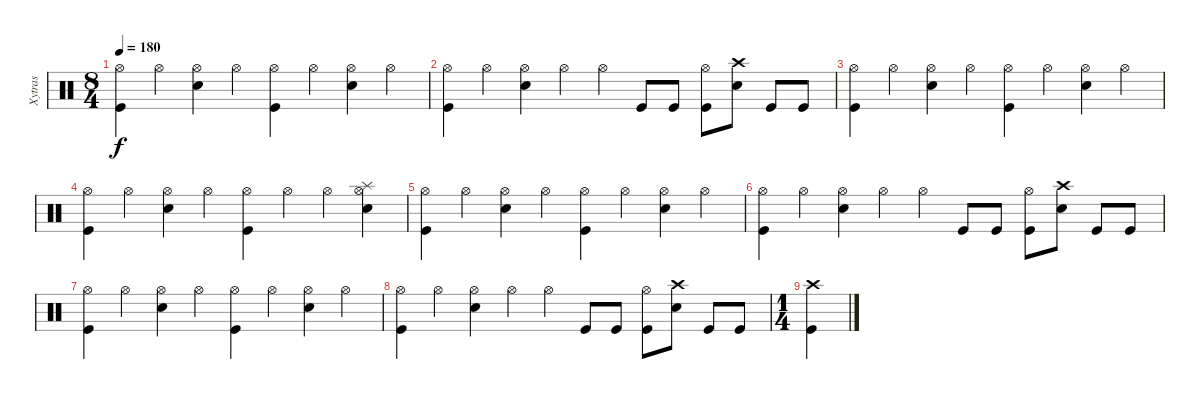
\track ("Xytras" "Xytras") {instrument percussion}
\staff {score}
\articulation defaults
\ts (8 4)
\tempo 180
\clef neutral
\ks c
("Hi-Hat (open)" "Kick (hit)").4{dy f} "Hi-Hat (open)".4 ("Hi-Hat (open)" "Electric Snare (hit)").4 "Hi-Hat (open)".4 ("Hi-Hat (open)" "Kick (hit)").4 "Hi-Hat (open)".4 ("Hi-Hat (open)" "Electric Snare (hit)").4 "Hi-Hat (open)".4 |
("Hi-Hat (open)" "Kick (hit)").4 "Hi-Hat (open)".4 ("Hi-Hat (open)" "Electric Snare (hit)").4 "Hi-Hat (open)".4 "Hi-Hat (open)".4 "Kick (hit)".8 "Kick (hit)".8 ("Kick (hit)" "Hi-Hat (open)").8 ("Electric Snare (hit)" "Crash high (hit)").8 "Kick (hit)".8 "Kick (hit)".8 |
("Hi-Hat (open)" "Kick (hit)").4 "Hi-Hat (open)".4 ("Hi-Hat (open)" "Electric Snare (hit)").4 "Hi-Hat (open)".4 ("Hi-Hat (open)" "Kick (hit)").4 "Hi-Hat (open)".4 ("Hi-Hat (open)" "Electric Snare (hit)").4 "Hi-Hat (open)".4 |
("Hi-Hat (open)" "Kick (hit)").4 "Hi-Hat (open)".4 ("Hi-Hat (open)" "Electric Snare (hit)").4 "Hi-Hat (open)".4 ("Hi-Hat (open)" "Kick (hit)").4 "Hi-Hat (open)".4 "Hi-Hat (open)".4 ("Hi-Hat (open)" "Splash (hit)" "Electric Snare (hit)").4 |
("Hi-Hat (open)" "Kick (hit)").4 "Hi-Hat (open)".4 ("Hi-Hat (open)" "Electric Snare (hit)").4 "Hi-Hat (open)".4 ("Hi-Hat (open)" "Kick (hit)").4 "Hi-Hat (open)".4 ("Hi-Hat (open)" "Electric Snare (hit)").4 "Hi-Hat (open)".4 |
("Hi-Hat (open)" "Kick (hit)").4 "Hi-Hat (open)".4 ("Hi-Hat (open)" "Electric Snare (hit)").4 "Hi-Hat (open)".4 "Hi-Hat (open)".4 "Kick (hit)".8 "Kick (hit)".8 ("Kick (hit)" "Hi-Hat (open)").8 ("Electric Snare (hit)" "Crash high (hit)").8 "Kick (hit)".8 "Kick (hit)".8 |
("Hi-Hat (open)" "Kick (hit)").4 "Hi-Hat (open)".4 ("Hi-Hat (open)" "Electric Snare (hit)").4 "Hi-Hat (open)".4 ("Hi-Hat (open)" "Kick (hit)").4 "Hi-Hat (open)".4 ("Hi-Hat (open)" "Electric Snare (hit)").4 "Hi-Hat (open)".4 |
("Hi-Hat (open)" "Kick (hit)").4 "Hi-Hat (open)".4 ("Hi-Hat (open)" "Electric Snare (hit)").4 "Hi-Hat (open)".4 "Hi-Hat (open)".4 "Kick (hit)".8 "Kick (hit)".8 ("Kick (hit)" "Hi-Hat (open)").8 ("Electric Snare (hit)" "Crash high (hit)").8 "Kick (hit)".8 "Kick (hit)".8 |
\ts (1 4)
("Crash high (hit)" "Kick (hit)").4
